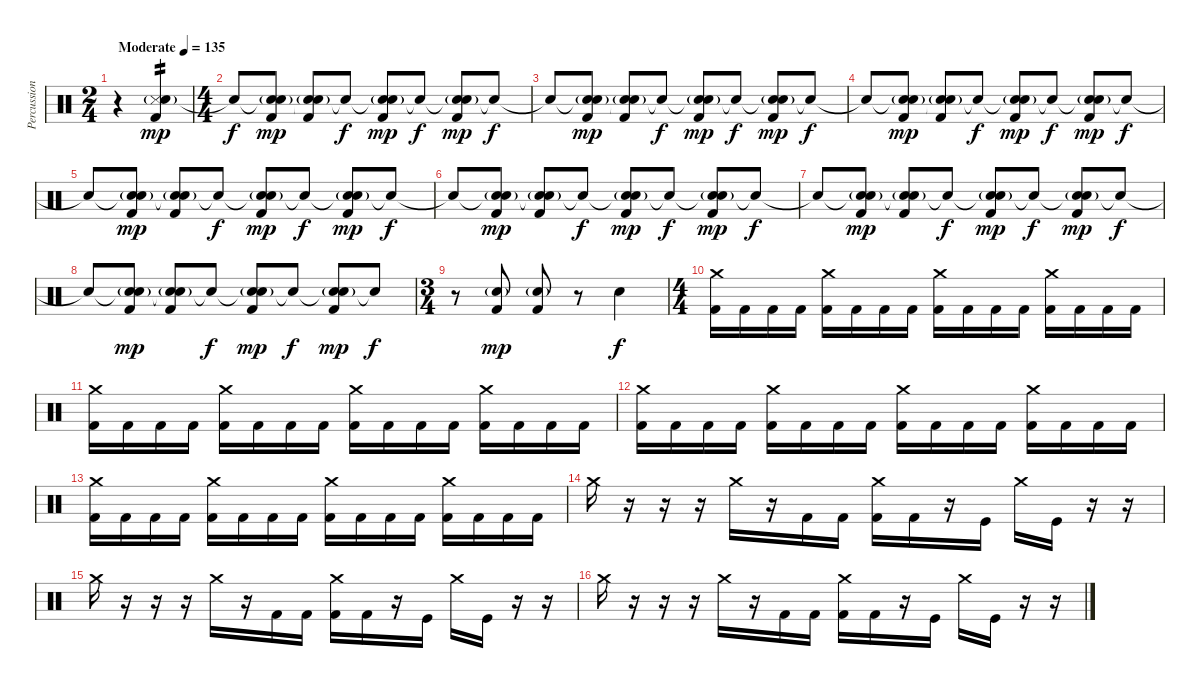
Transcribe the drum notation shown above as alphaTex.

\track ("Percussion" "Percussion") {instrument percussion}
\staff {score}
\articulation defaults
\ts (2 4)
\tempo (135 "Moderate")
\clef neutral
\ks c
r.4{dy mp} ("Metronome (hit)" "Snare (hit) 2"{g} "Kick (hit) 2").4{tp 2} |
\ts (4 4)
"Snare (hit)"{t}.8{dy f} ("Snare (hit)"{t} "Snare (hit) 2"{g} "Kick (hit) 2").8{dy mp} ("Snare (hit)"{t} "Snare (hit) 2"{g} "Kick (hit) 2").8 "Snare (hit)"{t}.8{dy f} ("Snare (hit)"{t} "Snare (hit) 2"{g} "Kick (hit) 2").8{dy mp} "Snare (hit)"{t}.8{dy f} ("Snare (hit)"{t} "Snare (hit) 2"{g} "Kick (hit) 2").8{dy mp} "Snare (hit)"{t}.8{dy f} |
"Snare (hit)"{t}.8 ("Snare (hit)"{t} "Snare (hit) 2"{g} "Kick (hit) 2").8{dy mp} ("Snare (hit)"{t} "Snare (hit) 2"{g} "Kick (hit) 2").8 "Snare (hit)"{t}.8{dy f} ("Snare (hit)"{t} "Snare (hit) 2"{g} "Kick (hit) 2").8{dy mp} "Snare (hit)"{t}.8{dy f} ("Snare (hit)"{t} "Snare (hit) 2"{g} "Kick (hit) 2").8{dy mp} "Snare (hit)"{t}.8{dy f} |
"Snare (hit)"{t}.8 ("Snare (hit)"{t} "Snare (hit) 2"{g} "Kick (hit) 2").8{dy mp} ("Snare (hit)"{t} "Snare (hit) 2"{g} "Kick (hit) 2").8 "Snare (hit)"{t}.8{dy f} ("Snare (hit)"{t} "Snare (hit) 2"{g} "Kick (hit) 2").8{dy mp} "Snare (hit)"{t}.8{dy f} ("Snare (hit)"{t} "Snare (hit) 2"{g} "Kick (hit) 2").8{dy mp} "Snare (hit)"{t}.8{dy f} |
"Snare (hit)"{t}.8 ("Snare (hit)"{t} "Snare (hit) 2"{g} "Kick (hit) 2").8{dy mp} ("Snare (hit)"{t} "Snare (hit) 2"{g} "Kick (hit) 2").8 "Snare (hit)"{t}.8{dy f} ("Snare (hit)"{t} "Snare (hit) 2"{g} "Kick (hit) 2").8{dy mp} "Snare (hit)"{t}.8{dy f} ("Snare (hit)"{t} "Snare (hit) 2"{g} "Kick (hit) 2").8{dy mp} "Snare (hit)"{t}.8{dy f} |
"Snare (hit)"{t}.8 ("Snare (hit)"{t} "Snare (hit) 2"{g} "Kick (hit) 2").8{dy mp} ("Snare (hit)"{t} "Snare (hit) 2"{g} "Kick (hit) 2").8 "Snare (hit)"{t}.8{dy f} ("Snare (hit)"{t} "Snare (hit) 2"{g} "Kick (hit) 2").8{dy mp} "Snare (hit)"{t}.8{dy f} ("Snare (hit)"{t} "Snare (hit) 2"{g} "Kick (hit) 2").8{dy mp} "Snare (hit)"{t}.8{dy f} |
"Snare (hit)"{t}.8 ("Snare (hit)"{t} "Snare (hit) 2"{g} "Kick (hit) 2").8{dy mp} ("Snare (hit)"{t} "Snare (hit) 2"{g} "Kick (hit) 2").8 "Snare (hit)"{t}.8{dy f} ("Snare (hit)"{t} "Snare (hit) 2"{g} "Kick (hit) 2").8{dy mp} "Snare (hit)"{t}.8{dy f} ("Snare (hit)"{t} "Snare (hit) 2"{g} "Kick (hit) 2").8{dy mp} "Snare (hit)"{t}.8{dy f} |
"Snare (hit)"{t}.8 ("Snare (hit)"{t} "Snare (hit) 2"{g} "Kick (hit) 2").8{dy mp} ("Snare (hit)"{t} "Snare (hit) 2"{g} "Kick (hit) 2").8 "Snare (hit)"{t}.8{dy f} ("Snare (hit)"{t} "Snare (hit) 2"{g} "Kick (hit) 2").8{dy mp} "Snare (hit)"{t}.8{dy f} ("Snare (hit)"{t} "Snare (hit) 2"{g} "Kick (hit) 2").8{dy mp} "Snare (hit)"{t}.8{dy f} |
\ts (3 4)
r.8 ("Snare (hit) 2"{g} "Kick (hit) 2").8{dy mp} ("Snare (hit) 2"{g} "Kick (hit) 2").8 r.8 "Electric Snare (hit)".4{dy f} |
\ts (4 4)
("Crash medium (hit)" "Kick (hit) 2").16 "Kick (hit) 2".16 "Kick (hit) 2".16 "Kick (hit) 2".16 ("Crash medium (hit)" "Kick (hit) 2").16 "Kick (hit) 2".16 "Kick (hit) 2".16 "Kick (hit) 2".16 ("Crash medium (hit)" "Kick (hit) 2").16 "Kick (hit) 2".16 "Kick (hit) 2".16 "Kick (hit) 2".16 ("Crash medium (hit)" "Kick (hit) 2").16 "Kick (hit) 2".16 "Kick (hit) 2".16 "Kick (hit) 2".16 |
("Crash medium (hit)" "Kick (hit) 2").16 "Kick (hit) 2".16 "Kick (hit) 2".16 "Kick (hit) 2".16 ("Crash medium (hit)" "Kick (hit) 2").16 "Kick (hit) 2".16 "Kick (hit) 2".16 "Kick (hit) 2".16 ("Crash medium (hit)" "Kick (hit) 2").16 "Kick (hit) 2".16 "Kick (hit) 2".16 "Kick (hit) 2".16 ("Crash medium (hit)" "Kick (hit) 2").16 "Kick (hit) 2".16 "Kick (hit) 2".16 "Kick (hit) 2".16 |
("Crash medium (hit)" "Kick (hit) 2").16 "Kick (hit) 2".16 "Kick (hit) 2".16 "Kick (hit) 2".16 ("Crash medium (hit)" "Kick (hit) 2").16 "Kick (hit) 2".16 "Kick (hit) 2".16 "Kick (hit) 2".16 ("Crash medium (hit)" "Kick (hit) 2").16 "Kick (hit) 2".16 "Kick (hit) 2".16 "Kick (hit) 2".16 ("Crash medium (hit)" "Kick (hit) 2").16 "Kick (hit) 2".16 "Kick (hit) 2".16 "Kick (hit) 2".16 |
("Crash medium (hit)" "Kick (hit) 2").16 "Kick (hit) 2".16 "Kick (hit) 2".16 "Kick (hit) 2".16 ("Crash medium (hit)" "Kick (hit) 2").16 "Kick (hit) 2".16 "Kick (hit) 2".16 "Kick (hit) 2".16 ("Crash medium (hit)" "Kick (hit) 2").16 "Kick (hit) 2".16 "Kick (hit) 2".16 "Kick (hit) 2".16 ("Crash medium (hit)" "Kick (hit) 2").16 "Kick (hit) 2".16 "Kick (hit) 2".16 "Kick (hit) 2".16 |
"Crash medium (hit)".16 r.16 r.16 r.16 "Crash medium (hit)".16 r.16 "Kick (hit) 2".16 "Kick (hit) 2".16 ("Crash medium (hit)" "Kick (hit) 2").16 "Kick (hit) 2".16 r.16 "Kick (hit)".16 "Crash medium (hit)".16 "Kick (hit)".16 r.16 r.16 |
"Crash medium (hit)".16 r.16 r.16 r.16 "Crash medium (hit)".16 r.16 "Kick (hit) 2".16 "Kick (hit) 2".16 ("Crash medium (hit)" "Kick (hit) 2").16 "Kick (hit) 2".16 r.16 "Kick (hit)".16 "Crash medium (hit)".16 "Kick (hit)".16 r.16 r.16 |
"Crash medium (hit)".16 r.16 r.16 r.16 "Crash medium (hit)".16 r.16 "Kick (hit) 2".16 "Kick (hit) 2".16 ("Crash medium (hit)" "Kick (hit) 2").16 "Kick (hit) 2".16 r.16 "Kick (hit)".16 "Crash medium (hit)".16 "Kick (hit)".16 r.16 r.16
